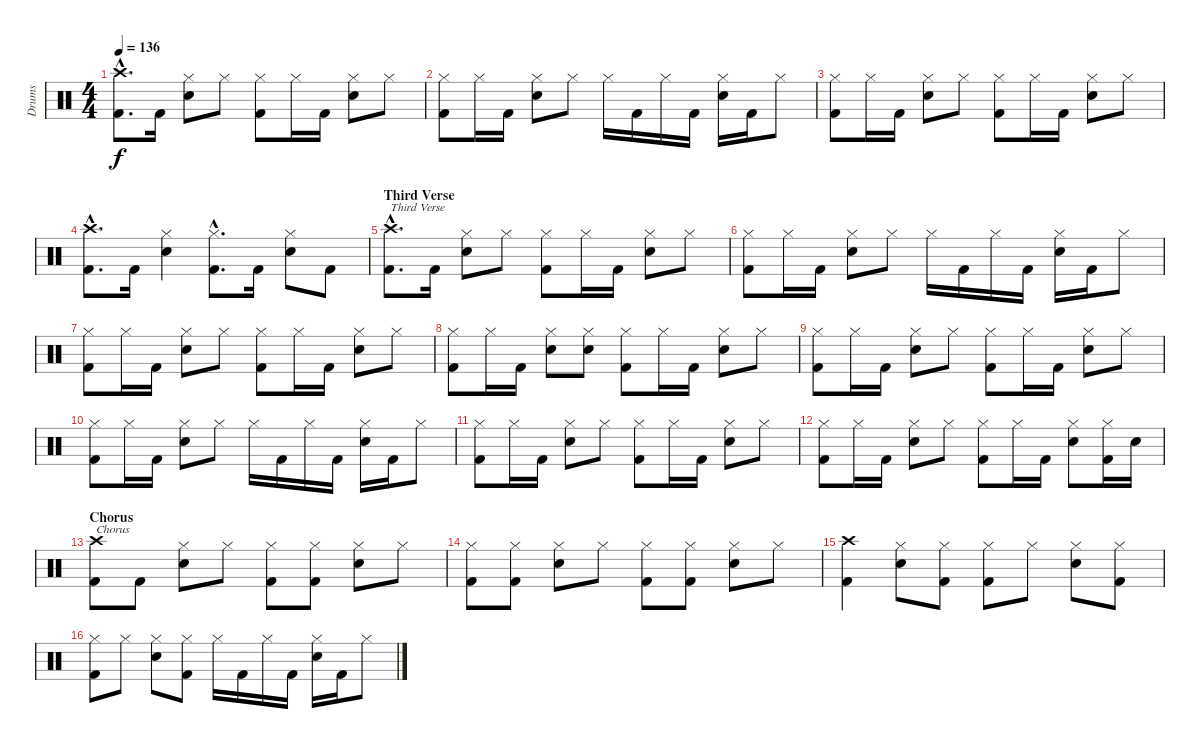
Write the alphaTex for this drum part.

\track ("Drums" "Drums") {instrument percussion}
\staff {score}
\articulation defaults
\ts (4 4)
\tempo 136
\clef neutral
\ks c
("Crash high (hit)"{hac} "Kick (hit) 2"{hac}).8{d dy f} "Kick (hit) 2".16 ("Hi-Hat (closed)" "Electric Snare (hit)").8 "Hi-Hat (closed)".8 ("Hi-Hat (closed)" "Kick (hit) 2").8 "Hi-Hat (closed)".16 "Kick (hit) 2".16 ("Hi-Hat (closed)" "Electric Snare (hit)").8 "Hi-Hat (closed)".8 |
("Hi-Hat (closed)" "Kick (hit) 2").8 "Hi-Hat (closed)".16 "Kick (hit) 2".16 ("Hi-Hat (closed)" "Electric Snare (hit)").8 "Hi-Hat (closed)".8 "Hi-Hat (closed)".16 "Kick (hit) 2".16 "Hi-Hat (closed)".16 "Kick (hit) 2".16 ("Hi-Hat (closed)" "Electric Snare (hit)").16 "Kick (hit) 2".16 "Hi-Hat (closed)".8 |
("Hi-Hat (closed)" "Kick (hit) 2").8 "Hi-Hat (closed)".16 "Kick (hit) 2".16 ("Hi-Hat (closed)" "Electric Snare (hit)").8 "Hi-Hat (closed)".8 ("Hi-Hat (closed)" "Kick (hit) 2").8 "Hi-Hat (closed)".16 "Kick (hit) 2".16 ("Hi-Hat (closed)" "Electric Snare (hit)").8 "Hi-Hat (closed)".8 |
("Crash high (hit)"{hac} "Kick (hit) 2"{hac}).8{d} "Kick (hit) 2".16 ("Hi-Hat (closed)" "Electric Snare (hit)").4 ("Hi-Hat (closed)"{hac} "Kick (hit) 2"{hac}).8{d} "Kick (hit) 2".16 ("Hi-Hat (closed)" "Electric Snare (hit)").8 "Kick (hit) 2".8 |
\section ("" "Third Verse")
("Crash high (hit)"{hac} "Kick (hit) 2"{hac}).8{d txt "Third Verse"} "Kick (hit) 2".16 ("Hi-Hat (closed)" "Electric Snare (hit)").8 "Hi-Hat (closed)".8 ("Hi-Hat (closed)" "Kick (hit) 2").8 "Hi-Hat (closed)".16 "Kick (hit) 2".16 ("Hi-Hat (closed)" "Electric Snare (hit)").8 "Hi-Hat (closed)".8 |
("Hi-Hat (closed)" "Kick (hit) 2").8 "Hi-Hat (closed)".16 "Kick (hit) 2".16 ("Hi-Hat (closed)" "Electric Snare (hit)").8 "Hi-Hat (closed)".8 "Hi-Hat (closed)".16 "Kick (hit) 2".16 "Hi-Hat (closed)".16 "Kick (hit) 2".16 ("Hi-Hat (closed)" "Electric Snare (hit)").16 "Kick (hit) 2".16 "Hi-Hat (closed)".8 |
("Hi-Hat (closed)" "Kick (hit) 2").8 "Hi-Hat (closed)".16 "Kick (hit) 2".16 ("Hi-Hat (closed)" "Electric Snare (hit)").8 "Hi-Hat (closed)".8 ("Hi-Hat (closed)" "Kick (hit) 2").8 "Hi-Hat (closed)".16 "Kick (hit) 2".16 ("Hi-Hat (closed)" "Electric Snare (hit)").8 "Hi-Hat (closed)".8 |
("Hi-Hat (closed)" "Kick (hit) 2").8 "Hi-Hat (closed)".16 "Kick (hit) 2".16 ("Hi-Hat (closed)" "Electric Snare (hit)").8 ("Hi-Hat (closed)" "Electric Snare (hit)").8 ("Hi-Hat (closed)" "Kick (hit) 2").8 "Hi-Hat (closed)".16 "Kick (hit) 2".16 ("Hi-Hat (closed)" "Electric Snare (hit)").8 "Hi-Hat (closed)".8 |
("Hi-Hat (closed)" "Kick (hit) 2").8 "Hi-Hat (closed)".16 "Kick (hit) 2".16 ("Hi-Hat (closed)" "Electric Snare (hit)").8 "Hi-Hat (closed)".8 ("Hi-Hat (closed)" "Kick (hit) 2").8 "Hi-Hat (closed)".16 "Kick (hit) 2".16 ("Hi-Hat (closed)" "Electric Snare (hit)").8 "Hi-Hat (closed)".8 |
("Hi-Hat (closed)" "Kick (hit) 2").8 "Hi-Hat (closed)".16 "Kick (hit) 2".16 ("Hi-Hat (closed)" "Electric Snare (hit)").8 "Hi-Hat (closed)".8 "Hi-Hat (closed)".16 "Kick (hit) 2".16 "Hi-Hat (closed)".16 "Kick (hit) 2".16 ("Hi-Hat (closed)" "Electric Snare (hit)").16 "Kick (hit) 2".16 "Hi-Hat (closed)".8 |
("Hi-Hat (closed)" "Kick (hit) 2").8 "Hi-Hat (closed)".16 "Kick (hit) 2".16 ("Hi-Hat (closed)" "Electric Snare (hit)").8 "Hi-Hat (closed)".8 ("Hi-Hat (closed)" "Kick (hit) 2").8 "Hi-Hat (closed)".16 "Kick (hit) 2".16 ("Hi-Hat (closed)" "Electric Snare (hit)").8 "Hi-Hat (closed)".8 |
("Hi-Hat (closed)" "Kick (hit) 2").8 "Hi-Hat (closed)".16 "Kick (hit) 2".16 ("Hi-Hat (closed)" "Electric Snare (hit)").8 "Hi-Hat (closed)".8 ("Hi-Hat (closed)" "Kick (hit) 2").8 "Hi-Hat (closed)".16 "Kick (hit) 2".16 ("Hi-Hat (closed)" "Electric Snare (hit)").8 ("Hi-Hat (closed)" "Kick (hit) 2").16 "Electric Snare (hit)".16 |
\section ("" "Chorus ")
("Crash high (hit)" "Kick (hit) 2").8{txt "Chorus"} "Kick (hit) 2".8 ("Hi-Hat (closed)" "Electric Snare (hit)").8 "Hi-Hat (closed)".8 ("Hi-Hat (closed)" "Kick (hit) 2").8 ("Hi-Hat (closed)" "Kick (hit) 2").8 ("Hi-Hat (closed)" "Electric Snare (hit)").8 "Hi-Hat (closed)".8 |
("Hi-Hat (closed)" "Kick (hit) 2").8 ("Hi-Hat (closed)" "Kick (hit) 2").8 ("Hi-Hat (closed)" "Electric Snare (hit)").8 "Hi-Hat (closed)".8 ("Hi-Hat (closed)" "Kick (hit) 2").8 ("Hi-Hat (closed)" "Kick (hit) 2").8 ("Hi-Hat (closed)" "Electric Snare (hit)").8 "Hi-Hat (closed)".8 |
("Crash high (hit)" "Kick (hit) 2").4 ("Hi-Hat (closed)" "Electric Snare (hit)").8 ("Hi-Hat (closed)" "Kick (hit) 2").8 ("Hi-Hat (closed)" "Kick (hit) 2").8 "Hi-Hat (closed)".8 ("Hi-Hat (closed)" "Electric Snare (hit)").8 ("Hi-Hat (closed)" "Kick (hit) 2").8 |
("Hi-Hat (closed)" "Kick (hit) 2").8 "Hi-Hat (closed)".8 ("Hi-Hat (closed)" "Electric Snare (hit)").8 ("Hi-Hat (closed)" "Kick (hit) 2").8 "Hi-Hat (closed)".16 "Kick (hit) 2".16 "Hi-Hat (closed)".16 "Kick (hit) 2".16 ("Hi-Hat (closed)" "Electric Snare (hit)").16 "Kick (hit) 2".16 "Hi-Hat (closed)".8
